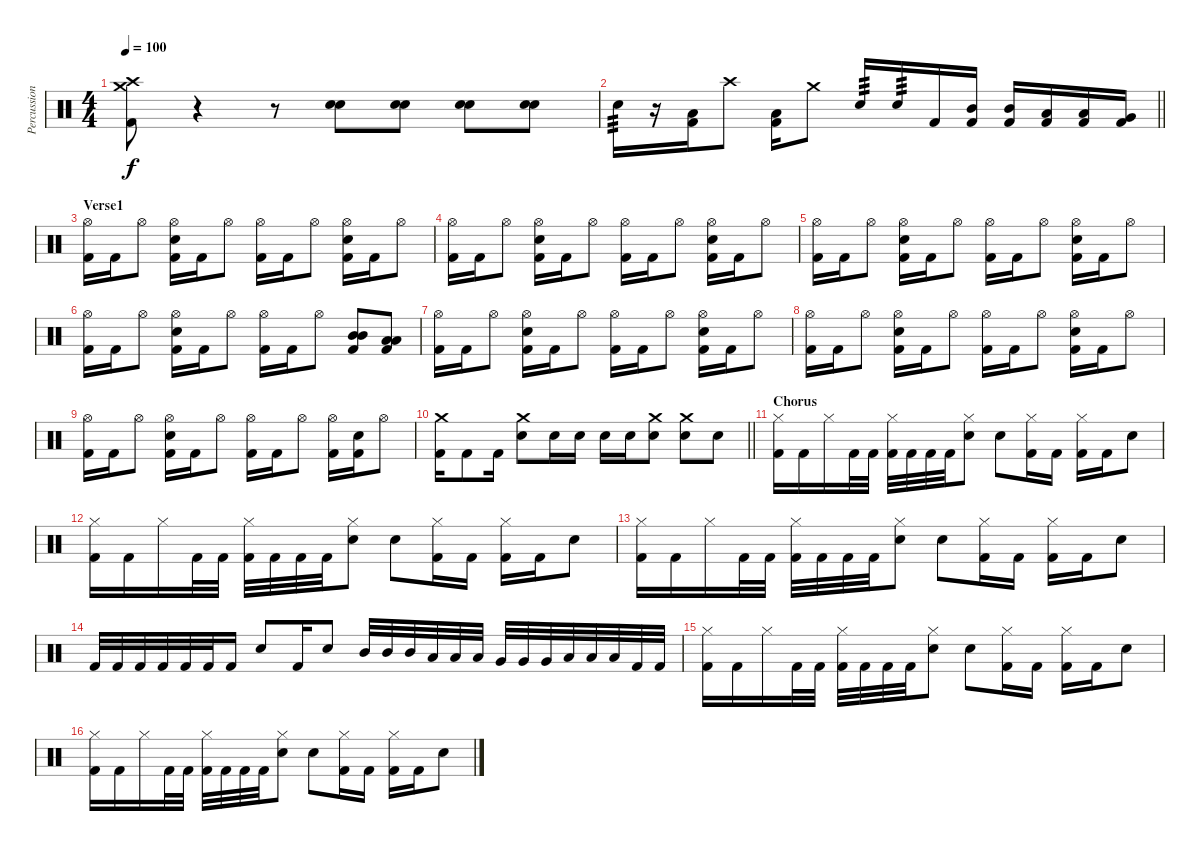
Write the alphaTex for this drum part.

\track ("Percussion" "Percussion") {instrument percussion}
\staff {score}
\articulation defaults
\ts (4 4)
\tempo 100
\clef neutral
\ks c
("Crash medium (hit)" "Crash high (hit)" "Kick (hit) 2").8{dy f} r.4 r.8 ("Electric Snare (hit)" "Electric Snare (hit)").8 ("Electric Snare (hit)" "Electric Snare (hit)").8 ("Electric Snare (hit)" "Electric Snare (hit)").8 ("Electric Snare (hit)" "Electric Snare (hit)").8 |
\barLineRight lightlight "Electric Snare (hit)".16{tp 3}
r.16 ("Low Tom (hit)" "Kick (hit) 2").16 "Crash high (hit)".8 ("Low Tom (hit)" "Kick (hit) 2").16 "Crash medium (hit)".8 "Electric Snare (hit)".16{tp 3} "Electric Snare (hit)".16{tp 3} "Kick (hit) 2".16 ("Mid Tom (hit)" "Kick (hit) 2").16 ("Mid Tom (hit)" "Kick (hit) 2").16 ("Low Tom (hit)" "Kick (hit) 2").16 ("Low Tom (hit)" "Kick (hit) 2").16 ("Very Low Tom (hit)" "Kick (hit) 2").16 |
\section ("" "Verse1")
("Hi-Hat (open)" "Kick (hit) 2").16 "Kick (hit) 2".16 "Hi-Hat (open)".8 ("Hi-Hat (open)" "Electric Snare (hit)" "Kick (hit) 2").16 "Kick (hit) 2".16 "Hi-Hat (open)".8 ("Hi-Hat (open)" "Kick (hit) 2").16 "Kick (hit) 2".16 "Hi-Hat (open)".8 ("Hi-Hat (open)" "Electric Snare (hit)" "Kick (hit) 2").16 "Kick (hit) 2".16 "Hi-Hat (open)".8 |
("Hi-Hat (open)" "Kick (hit) 2").16 "Kick (hit) 2".16 "Hi-Hat (open)".8 ("Hi-Hat (open)" "Electric Snare (hit)" "Kick (hit) 2").16 "Kick (hit) 2".16 "Hi-Hat (open)".8 ("Hi-Hat (open)" "Kick (hit) 2").16 "Kick (hit) 2".16 "Hi-Hat (open)".8 ("Hi-Hat (open)" "Electric Snare (hit)" "Kick (hit) 2").16 "Kick (hit) 2".16 "Hi-Hat (open)".8 |
("Hi-Hat (open)" "Kick (hit) 2").16 "Kick (hit) 2".16 "Hi-Hat (open)".8 ("Hi-Hat (open)" "Electric Snare (hit)" "Kick (hit) 2").16 "Kick (hit) 2".16 "Hi-Hat (open)".8 ("Hi-Hat (open)" "Kick (hit) 2").16 "Kick (hit) 2".16 "Hi-Hat (open)".8 ("Hi-Hat (open)" "Electric Snare (hit)" "Kick (hit) 2").16 "Kick (hit) 2".16 "Hi-Hat (open)".8 |
("Hi-Hat (open)" "Kick (hit) 2").16 "Kick (hit) 2".16 "Hi-Hat (open)".8 ("Hi-Hat (open)" "Electric Snare (hit)" "Kick (hit) 2").16 "Kick (hit) 2".16 "Hi-Hat (open)".8 ("Hi-Hat (open)" "Kick (hit) 2").16 "Kick (hit) 2".16 "Hi-Hat (open)".8 ("Mid Tom (hit)" "Mid Tom (hit)" "Kick (hit) 2").8 ("Low Tom (hit)" "Low Tom (hit)" "Kick (hit) 2").8 |
("Hi-Hat (open)" "Kick (hit) 2").16 "Kick (hit) 2".16 "Hi-Hat (open)".8 ("Hi-Hat (open)" "Electric Snare (hit)" "Kick (hit) 2").16 "Kick (hit) 2".16 "Hi-Hat (open)".8 ("Hi-Hat (open)" "Kick (hit) 2").16 "Kick (hit) 2".16 "Hi-Hat (open)".8 ("Hi-Hat (open)" "Electric Snare (hit)" "Kick (hit) 2").16 "Kick (hit) 2".16 "Hi-Hat (open)".8 |
("Hi-Hat (open)" "Kick (hit) 2").16 "Kick (hit) 2".16 "Hi-Hat (open)".8 ("Hi-Hat (open)" "Electric Snare (hit)" "Kick (hit) 2").16 "Kick (hit) 2".16 "Hi-Hat (open)".8 ("Hi-Hat (open)" "Kick (hit) 2").16 "Kick (hit) 2".16 "Hi-Hat (open)".8 ("Hi-Hat (open)" "Electric Snare (hit)" "Kick (hit) 2").16 "Kick (hit) 2".16 "Hi-Hat (open)".8 |
("Hi-Hat (open)" "Kick (hit) 2").16 "Kick (hit) 2".16 "Hi-Hat (open)".8 ("Hi-Hat (open)" "Electric Snare (hit)" "Kick (hit) 2").16 "Kick (hit) 2".16 "Hi-Hat (open)".8 ("Hi-Hat (open)" "Kick (hit) 2").16 "Kick (hit) 2".16 "Hi-Hat (open)".8 ("Hi-Hat (open)" "Kick (hit) 2").16 ("Electric Snare (hit)" "Kick (hit) 2").16 "Hi-Hat (open)".8 |
\barLineRight lightlight
("Crash medium (hit)" "Kick (hit) 2").16 "Kick (hit) 2".8 "Kick (hit) 2".16 ("Crash medium (hit)" "Electric Snare (hit)").8 "Electric Snare (hit)".16 "Electric Snare (hit)".16 "Electric Snare (hit)".16 "Electric Snare (hit)".16 ("Crash medium (hit)" "Electric Snare (hit)").8 ("Crash medium (hit)" "Electric Snare (hit)").8 "Electric Snare (hit)".8 |
\section ("" "Chorus")
("Hi-Hat (closed)" "Kick (hit) 2").16 "Kick (hit) 2".16 "Hi-Hat (closed)".16 "Kick (hit) 2".32 "Kick (hit) 2".32 ("Hi-Hat (closed)" "Kick (hit) 2").32 "Kick (hit) 2".32 "Kick (hit) 2".32 "Kick (hit) 2".32 ("Hi-Hat (closed)" "Electric Snare (hit)").8 "Electric Snare (hit)".8 ("Hi-Hat (closed)" "Kick (hit) 2").16 "Kick (hit) 2".16 ("Hi-Hat (closed)" "Kick (hit) 2").16 "Kick (hit) 2".16 "Electric Snare (hit)".8 |
("Hi-Hat (closed)" "Kick (hit) 2").16 "Kick (hit) 2".16 "Hi-Hat (closed)".16 "Kick (hit) 2".32 "Kick (hit) 2".32 ("Hi-Hat (closed)" "Kick (hit) 2").32 "Kick (hit) 2".32 "Kick (hit) 2".32 "Kick (hit) 2".32 ("Hi-Hat (closed)" "Electric Snare (hit)").8 "Electric Snare (hit)".8 ("Hi-Hat (closed)" "Kick (hit) 2").16 "Kick (hit) 2".16 ("Hi-Hat (closed)" "Kick (hit) 2").16 "Kick (hit) 2".16 "Electric Snare (hit)".8 |
("Hi-Hat (closed)" "Kick (hit) 2").16 "Kick (hit) 2".16 "Hi-Hat (closed)".16 "Kick (hit) 2".32 "Kick (hit) 2".32 ("Hi-Hat (closed)" "Kick (hit) 2").32 "Kick (hit) 2".32 "Kick (hit) 2".32 "Kick (hit) 2".32 ("Hi-Hat (closed)" "Electric Snare (hit)").8 "Electric Snare (hit)".8 ("Hi-Hat (closed)" "Kick (hit) 2").16 "Kick (hit) 2".16 ("Hi-Hat (closed)" "Kick (hit) 2").16 "Kick (hit) 2".16 "Electric Snare (hit)".8 |
"Kick (hit) 2".32 "Kick (hit) 2".32 "Kick (hit) 2".32 "Kick (hit) 2".32 "Kick (hit) 2".32 "Kick (hit) 2".32 "Kick (hit) 2".16 "Electric Snare (hit)".8 "Kick (hit) 2".16 "Electric Snare (hit)".8 "Mid Tom (hit)".32 "Mid Tom (hit)".32 "Mid Tom (hit)".32 "Low Tom (hit)".32 "Low Tom (hit)".32 "Low Tom (hit)".32 "Very Low Tom (hit)".32 "Very Low Tom (hit)".32 "Very Low Tom (hit)".32 "Low Floor Tom (hit)".32 "Low Floor Tom (hit)".32 "Low Floor Tom (hit)".32 "Kick (hit) 2".32 "Kick (hit) 2".32 |
("Hi-Hat (closed)" "Kick (hit) 2").16 "Kick (hit) 2".16 "Hi-Hat (closed)".16 "Kick (hit) 2".32 "Kick (hit) 2".32 ("Hi-Hat (closed)" "Kick (hit) 2").32 "Kick (hit) 2".32 "Kick (hit) 2".32 "Kick (hit) 2".32 ("Hi-Hat (closed)" "Electric Snare (hit)").8 "Electric Snare (hit)".8 ("Hi-Hat (closed)" "Kick (hit) 2").16 "Kick (hit) 2".16 ("Hi-Hat (closed)" "Kick (hit) 2").16 "Kick (hit) 2".16 "Electric Snare (hit)".8 |
("Hi-Hat (closed)" "Kick (hit) 2").16 "Kick (hit) 2".16 "Hi-Hat (closed)".16 "Kick (hit) 2".32 "Kick (hit) 2".32 ("Hi-Hat (closed)" "Kick (hit) 2").32 "Kick (hit) 2".32 "Kick (hit) 2".32 "Kick (hit) 2".32 ("Hi-Hat (closed)" "Electric Snare (hit)").8 "Electric Snare (hit)".8 ("Hi-Hat (closed)" "Kick (hit) 2").16 "Kick (hit) 2".16 ("Hi-Hat (closed)" "Kick (hit) 2").16 "Kick (hit) 2".16 "Electric Snare (hit)".8
